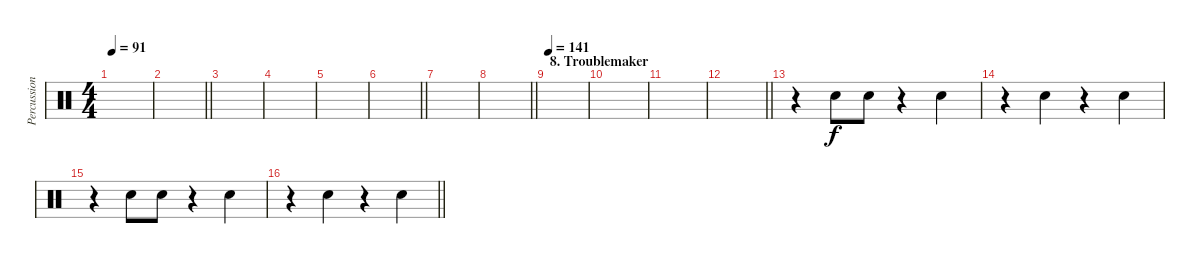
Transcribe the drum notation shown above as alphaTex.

\track ("Percussion" "Percussion") {instrument percussion}
\staff {score}
\articulation defaults
\ts (4 4)
\tempo 91
\clef neutral
\ks c
|
\barLineRight lightlight
|
|
|
|
\barLineRight lightlight
|
|
\barLineRight lightlight
|
\section ("" "8. Troublemaker")
\tempo 141
|
|
|
\barLineRight lightlight
|
r.4 "Hand Clap (hit)".8 "Hand Clap (hit)".8 r.4 "Hand Clap (hit)".4 |
r.4 "Hand Clap (hit)".4 r.4 "Hand Clap (hit)".4 |
r.4 "Hand Clap (hit)".8 "Hand Clap (hit)".8 r.4 "Hand Clap (hit)".4 |
\barLineRight lightlight
r.4 "Hand Clap (hit)".4 r.4 "Hand Clap (hit)".4
